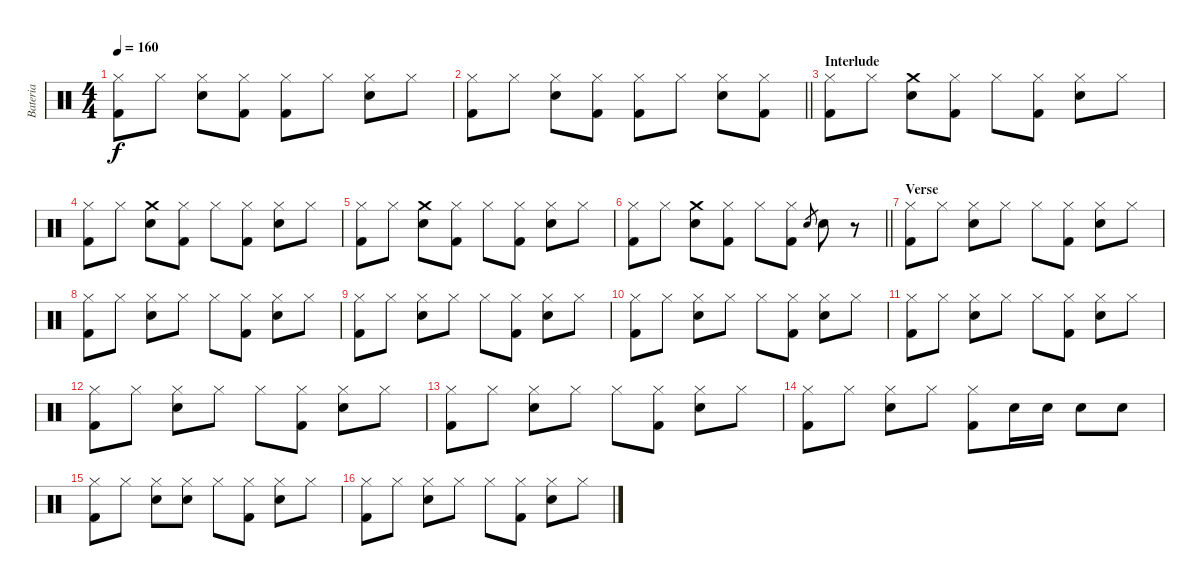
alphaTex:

\track ("Bateria" "Bateria") {instrument percussion}
\staff {score}
\articulation defaults
\ts (4 4)
\tempo 160
\clef neutral
\ks c
("Hi-Hat (closed)" "Kick (hit) 2").8{dy f} "Hi-Hat (closed)".8 ("Hi-Hat (closed)" "Electric Snare (hit)").8 ("Hi-Hat (closed)" "Kick (hit) 2").8 ("Hi-Hat (closed)" "Kick (hit) 2").8 "Hi-Hat (closed)".8 ("Hi-Hat (closed)" "Electric Snare (hit)").8 "Hi-Hat (closed)".8 |
\barLineRight lightlight
("Hi-Hat (closed)" "Kick (hit) 2").8 "Hi-Hat (closed)".8 ("Hi-Hat (closed)" "Electric Snare (hit)").8 ("Hi-Hat (closed)" "Kick (hit) 2").8 ("Hi-Hat (closed)" "Kick (hit) 2").8 "Hi-Hat (closed)".8 ("Hi-Hat (closed)" "Electric Snare (hit)").8 ("Hi-Hat (closed)" "Kick (hit) 2").8 |
\section ("" "Interlude")
("Hi-Hat (closed)" "Kick (hit) 2").8 "Hi-Hat (closed)".8 ("Crash medium (hit)" "Electric Snare (hit)").8 ("Hi-Hat (closed)" "Kick (hit) 2").8 "Hi-Hat (closed)".8 ("Hi-Hat (closed)" "Kick (hit) 2").8 ("Hi-Hat (closed)" "Electric Snare (hit)").8 "Hi-Hat (closed)".8 |
("Hi-Hat (closed)" "Kick (hit) 2").8 "Hi-Hat (closed)".8 ("Crash medium (hit)" "Electric Snare (hit)").8 ("Hi-Hat (closed)" "Kick (hit) 2").8 "Hi-Hat (closed)".8 ("Hi-Hat (closed)" "Kick (hit) 2").8 ("Hi-Hat (closed)" "Electric Snare (hit)").8 "Hi-Hat (closed)".8 |
("Hi-Hat (closed)" "Kick (hit) 2").8 "Hi-Hat (closed)".8 ("Crash medium (hit)" "Electric Snare (hit)").8 ("Hi-Hat (closed)" "Kick (hit) 2").8 "Hi-Hat (closed)".8 ("Hi-Hat (closed)" "Kick (hit) 2").8 ("Hi-Hat (closed)" "Electric Snare (hit)").8 "Hi-Hat (closed)".8 |
\barLineRight lightlight
("Hi-Hat (closed)" "Kick (hit) 2").8 "Hi-Hat (closed)".8 ("Crash medium (hit)" "Electric Snare (hit)").8 ("Hi-Hat (closed)" "Kick (hit) 2").8 "Hi-Hat (closed)".8 ("Hi-Hat (closed)" "Kick (hit) 2").8 "Electric Snare (hit)".8{gr} "Electric Snare (hit)".8 r.8 |
\section ("" "Verse")
("Hi-Hat (closed)" "Kick (hit) 2").8 "Hi-Hat (closed)".8 ("Hi-Hat (closed)" "Electric Snare (hit)").8 "Hi-Hat (closed)".8 "Hi-Hat (closed)".8 ("Hi-Hat (closed)" "Kick (hit) 2").8 ("Hi-Hat (closed)" "Electric Snare (hit)").8 "Hi-Hat (closed)".8 |
("Hi-Hat (closed)" "Kick (hit) 2").8 "Hi-Hat (closed)".8 ("Hi-Hat (closed)" "Electric Snare (hit)").8 "Hi-Hat (closed)".8 "Hi-Hat (closed)".8 ("Hi-Hat (closed)" "Kick (hit) 2").8 ("Hi-Hat (closed)" "Electric Snare (hit)").8 "Hi-Hat (closed)".8 |
("Hi-Hat (closed)" "Kick (hit) 2").8 "Hi-Hat (closed)".8 ("Hi-Hat (closed)" "Electric Snare (hit)").8 "Hi-Hat (closed)".8 "Hi-Hat (closed)".8 ("Hi-Hat (closed)" "Kick (hit) 2").8 ("Hi-Hat (closed)" "Electric Snare (hit)").8 "Hi-Hat (closed)".8 |
("Hi-Hat (closed)" "Kick (hit) 2").8 "Hi-Hat (closed)".8 ("Hi-Hat (closed)" "Electric Snare (hit)").8 "Hi-Hat (closed)".8 "Hi-Hat (closed)".8 ("Hi-Hat (closed)" "Kick (hit) 2").8 ("Hi-Hat (closed)" "Electric Snare (hit)").8 "Hi-Hat (closed)".8 |
("Hi-Hat (closed)" "Kick (hit) 2").8 "Hi-Hat (closed)".8 ("Hi-Hat (closed)" "Electric Snare (hit)").8 "Hi-Hat (closed)".8 "Hi-Hat (closed)".8 ("Hi-Hat (closed)" "Kick (hit) 2").8 ("Hi-Hat (closed)" "Electric Snare (hit)").8 "Hi-Hat (closed)".8 |
("Hi-Hat (closed)" "Kick (hit) 2").8 "Hi-Hat (closed)".8 ("Hi-Hat (closed)" "Electric Snare (hit)").8 "Hi-Hat (closed)".8 "Hi-Hat (closed)".8 ("Hi-Hat (closed)" "Kick (hit) 2").8 ("Hi-Hat (closed)" "Electric Snare (hit)").8 "Hi-Hat (closed)".8 |
("Hi-Hat (closed)" "Kick (hit) 2").8 "Hi-Hat (closed)".8 ("Hi-Hat (closed)" "Electric Snare (hit)").8 "Hi-Hat (closed)".8 "Hi-Hat (closed)".8 ("Hi-Hat (closed)" "Kick (hit) 2").8 ("Hi-Hat (closed)" "Electric Snare (hit)").8 "Hi-Hat (closed)".8 |
("Hi-Hat (closed)" "Kick (hit) 2").8 "Hi-Hat (closed)".8 ("Hi-Hat (closed)" "Electric Snare (hit)").8 "Hi-Hat (closed)".8 ("Hi-Hat (closed)" "Kick (hit) 2").8 "Electric Snare (hit)".16 "Electric Snare (hit)".16 "Electric Snare (hit)".8 "Electric Snare (hit)".8 |
("Hi-Hat (closed)" "Kick (hit) 2").8 "Hi-Hat (closed)".8 ("Hi-Hat (closed)" "Electric Snare (hit)").8 ("Hi-Hat (closed)" "Electric Snare (hit)").8 "Hi-Hat (closed)".8 ("Hi-Hat (closed)" "Kick (hit) 2").8 ("Hi-Hat (closed)" "Electric Snare (hit)").8 "Hi-Hat (closed)".8 |
("Hi-Hat (closed)" "Kick (hit) 2").8 "Hi-Hat (closed)".8 ("Hi-Hat (closed)" "Electric Snare (hit)").8 "Hi-Hat (closed)".8 "Hi-Hat (closed)".8 ("Hi-Hat (closed)" "Kick (hit) 2").8 ("Hi-Hat (closed)" "Electric Snare (hit)").8 "Hi-Hat (closed)".8
